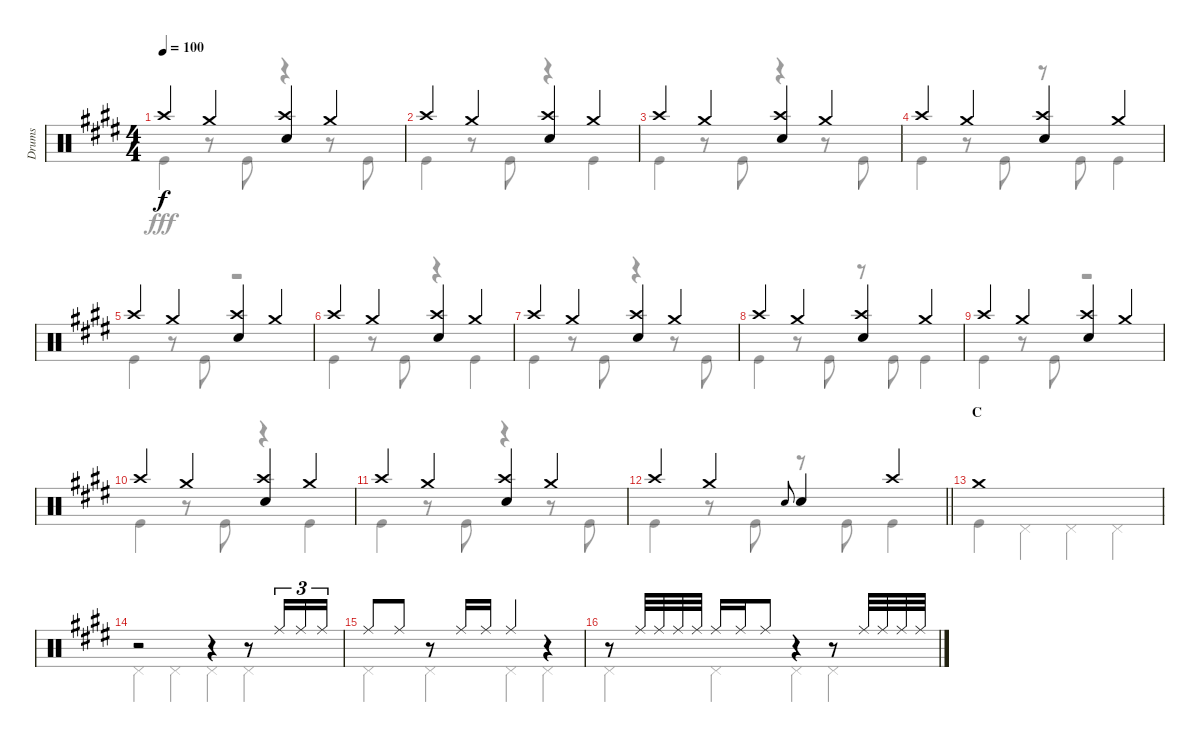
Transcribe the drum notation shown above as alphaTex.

\track ("Drums" "Drums") {instrument percussion}
\staff {score}
\articulation defaults
\voice
\ts (4 4)
\tempo 100
\clef neutral
\ks e "Crash high (hit)".4{dy f} "Crash medium (hit)".4
("Crash high (hit)" "Snare (hit) 2").4 "Crash medium (hit)".4 |
"Crash high (hit)".4 "Crash medium (hit)".4 ("Crash high (hit)" "Snare (hit) 2").4 "Crash medium (hit)".4 |
"Crash high (hit)".4 "Crash medium (hit)".4 ("Crash high (hit)" "Snare (hit) 2").4 "Crash medium (hit)".4 |
"Crash high (hit)".4 "Crash medium (hit)".4 ("Crash high (hit)" "Snare (hit) 2").4 "Crash medium (hit)".4 |
"Crash high (hit)".4 "Crash medium (hit)".4 ("Crash high (hit)" "Snare (hit) 2").4 "Crash medium (hit)".4 |
"Crash high (hit)".4 "Crash medium (hit)".4 ("Crash high (hit)" "Snare (hit) 2").4 "Crash medium (hit)".4 |
"Crash high (hit)".4 "Crash medium (hit)".4 ("Crash high (hit)" "Snare (hit) 2").4 "Crash medium (hit)".4 |
"Crash high (hit)".4 "Crash medium (hit)".4 ("Crash high (hit)" "Snare (hit) 2").4 "Crash medium (hit)".4 |
"Crash high (hit)".4 "Crash medium (hit)".4 ("Crash high (hit)" "Snare (hit) 2").4 "Crash medium (hit)".4 |
"Crash high (hit)".4 "Crash medium (hit)".4 ("Crash high (hit)" "Snare (hit) 2").4 "Crash medium (hit)".4 |
"Crash high (hit)".4 "Crash medium (hit)".4 ("Crash high (hit)" "Snare (hit) 2").4 "Crash medium (hit)".4 |
\barLineRight lightlight "Crash high (hit)".4 "Crash medium (hit)".4 "Snare (hit) 2".8{gr onbeat} "Snare (hit) 2".4 "Crash high (hit)".4
|
\section ("" "C")
"Crash medium (hit)".1 |
r.2 r.4 r.8 "Ride (middle)".16{tu (3 2)} "Ride (middle)".16{tu (3 2)} "Ride (middle)".16{tu (3 2)} |
"Ride (middle)".8 "Ride (middle)".8 r.8 "Ride (middle)".16 "Ride (middle)".16 "Ride (middle)".4 r.4 |
r.8 "Ride (middle)".32 "Ride (middle)".32 "Ride (middle)".32 "Ride (middle)".32 "Ride (middle)".16 "Ride (middle)".16 "Ride (middle)".8 r.4 r.8 "Ride (middle)".32 "Ride (middle)".32 "Ride (middle)".32 "Ride (middle)".32
\voice
\clef neutral
\ottava regular
\simile none
\ks e "Kick (hit)".4{dy fff}
r.8 "Kick (hit)".8 r.4 r.8 "Kick (hit)".8 |
"Kick (hit)".4 r.8 "Kick (hit)".8 r.4 "Kick (hit)".4 |
"Kick (hit)".4 r.8 "Kick (hit)".8 r.4 r.8 "Kick (hit)".8 |
"Kick (hit)".4 r.8 "Kick (hit)".8 r.8 "Kick (hit)".8 "Kick (hit)".4 |
"Kick (hit)".4 r.8 "Kick (hit)".8 r.2 |
"Kick (hit)".4 r.8 "Kick (hit)".8 r.4 "Kick (hit)".4 |
"Kick (hit)".4 r.8 "Kick (hit)".8 r.4 r.8 "Kick (hit)".8 |
"Kick (hit)".4 r.8 "Kick (hit)".8 r.8 "Kick (hit)".8 "Kick (hit)".4 |
"Kick (hit)".4 r.8 "Kick (hit)".8 r.2 |
"Kick (hit)".4 r.8 "Kick (hit)".8 r.4 "Kick (hit)".4 |
"Kick (hit)".4 r.8 "Kick (hit)".8 r.4 r.8 "Kick (hit)".8 |
\barLineRight lightlight "Kick (hit)".4
r.8 "Kick (hit)".8 r.8 "Kick (hit)".8 "Kick (hit)".4 |
"Kick (hit)".4 "Pedal Hi-Hat (hit)".4 "Pedal Hi-Hat (hit)".4 "Pedal Hi-Hat (hit)".4 |
"Pedal Hi-Hat (hit)".4 "Pedal Hi-Hat (hit)".4 "Pedal Hi-Hat (hit)".4 "Pedal Hi-Hat (hit)".4 |
"Pedal Hi-Hat (hit)".4 "Pedal Hi-Hat (hit)".4 "Pedal Hi-Hat (hit)".4 "Pedal Hi-Hat (hit)".4 |
"Pedal Hi-Hat (hit)".4 "Pedal Hi-Hat (hit)".4 "Pedal Hi-Hat (hit)".4 "Pedal Hi-Hat (hit)".4
